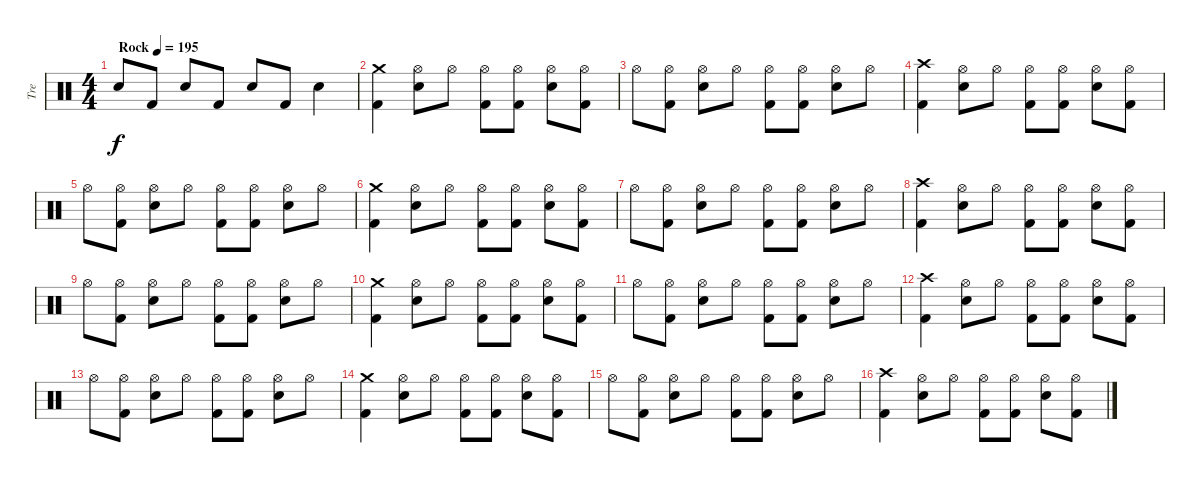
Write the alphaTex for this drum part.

\track ("Tre" "Tre") {instrument percussion}
\staff {score}
\articulation defaults
\ts (4 4)
\tempo (195 "Rock")
\clef neutral
\ks c "Electric Snare (hit)".8{dy f} "Kick (hit) 2".8 "Electric Snare (hit)".8 "Kick (hit) 2".8 "Electric Snare (hit)".8 "Kick (hit) 2".8 "Electric Snare (hit)".4
|
("Crash medium (hit)" "Kick (hit) 2").4 ("Hi-Hat (open)" "Electric Snare (hit)").8 "Hi-Hat (open)".8 ("Hi-Hat (open)" "Kick (hit) 2").8 ("Hi-Hat (open)" "Kick (hit) 2").8 ("Hi-Hat (open)" "Electric Snare (hit)").8 ("Hi-Hat (open)" "Kick (hit) 2").8 |
"Hi-Hat (open)".8 ("Hi-Hat (open)" "Kick (hit) 2").8 ("Hi-Hat (open)" "Electric Snare (hit)").8 "Hi-Hat (open)".8 ("Hi-Hat (open)" "Kick (hit) 2").8 ("Hi-Hat (open)" "Kick (hit) 2").8 ("Hi-Hat (open)" "Electric Snare (hit)").8 "Hi-Hat (open)".8 |
("Crash high (hit)" "Kick (hit) 2").4 ("Hi-Hat (open)" "Electric Snare (hit)").8 "Hi-Hat (open)".8 ("Hi-Hat (open)" "Kick (hit) 2").8 ("Hi-Hat (open)" "Kick (hit) 2").8 ("Hi-Hat (open)" "Electric Snare (hit)").8 ("Hi-Hat (open)" "Kick (hit) 2").8 |
"Hi-Hat (open)".8 ("Hi-Hat (open)" "Kick (hit) 2").8 ("Hi-Hat (open)" "Electric Snare (hit)").8 "Hi-Hat (open)".8 ("Hi-Hat (open)" "Kick (hit) 2").8 ("Hi-Hat (open)" "Kick (hit) 2").8 ("Hi-Hat (open)" "Electric Snare (hit)").8 "Hi-Hat (open)".8 |
("Crash medium (hit)" "Kick (hit) 2").4 ("Hi-Hat (open)" "Electric Snare (hit)").8 "Hi-Hat (open)".8 ("Hi-Hat (open)" "Kick (hit) 2").8 ("Hi-Hat (open)" "Kick (hit) 2").8 ("Hi-Hat (open)" "Electric Snare (hit)").8 ("Hi-Hat (open)" "Kick (hit) 2").8 |
"Hi-Hat (open)".8 ("Hi-Hat (open)" "Kick (hit) 2").8 ("Hi-Hat (open)" "Electric Snare (hit)").8 "Hi-Hat (open)".8 ("Hi-Hat (open)" "Kick (hit) 2").8 ("Hi-Hat (open)" "Kick (hit) 2").8 ("Hi-Hat (open)" "Electric Snare (hit)").8 "Hi-Hat (open)".8 |
("Crash high (hit)" "Kick (hit) 2").4 ("Hi-Hat (open)" "Electric Snare (hit)").8 "Hi-Hat (open)".8 ("Hi-Hat (open)" "Kick (hit) 2").8 ("Hi-Hat (open)" "Kick (hit) 2").8 ("Hi-Hat (open)" "Electric Snare (hit)").8 ("Hi-Hat (open)" "Kick (hit) 2").8 |
"Hi-Hat (open)".8 ("Hi-Hat (open)" "Kick (hit) 2").8 ("Hi-Hat (open)" "Electric Snare (hit)").8 "Hi-Hat (open)".8 ("Hi-Hat (open)" "Kick (hit) 2").8 ("Hi-Hat (open)" "Kick (hit) 2").8 ("Hi-Hat (open)" "Electric Snare (hit)").8 "Hi-Hat (open)".8 |
("Crash medium (hit)" "Kick (hit) 2").4 ("Hi-Hat (open)" "Electric Snare (hit)").8 "Hi-Hat (open)".8 ("Hi-Hat (open)" "Kick (hit) 2").8 ("Hi-Hat (open)" "Kick (hit) 2").8 ("Hi-Hat (open)" "Electric Snare (hit)").8 ("Hi-Hat (open)" "Kick (hit) 2").8 |
"Hi-Hat (open)".8 ("Hi-Hat (open)" "Kick (hit) 2").8 ("Hi-Hat (open)" "Electric Snare (hit)").8 "Hi-Hat (open)".8 ("Hi-Hat (open)" "Kick (hit) 2").8 ("Hi-Hat (open)" "Kick (hit) 2").8 ("Hi-Hat (open)" "Electric Snare (hit)").8 "Hi-Hat (open)".8 |
("Crash high (hit)" "Kick (hit) 2").4 ("Hi-Hat (open)" "Electric Snare (hit)").8 "Hi-Hat (open)".8 ("Hi-Hat (open)" "Kick (hit) 2").8 ("Hi-Hat (open)" "Kick (hit) 2").8 ("Hi-Hat (open)" "Electric Snare (hit)").8 ("Hi-Hat (open)" "Kick (hit) 2").8 |
"Hi-Hat (open)".8 ("Hi-Hat (open)" "Kick (hit) 2").8 ("Hi-Hat (open)" "Electric Snare (hit)").8 "Hi-Hat (open)".8 ("Hi-Hat (open)" "Kick (hit) 2").8 ("Hi-Hat (open)" "Kick (hit) 2").8 ("Hi-Hat (open)" "Electric Snare (hit)").8 "Hi-Hat (open)".8 |
("Crash medium (hit)" "Kick (hit) 2").4 ("Hi-Hat (open)" "Electric Snare (hit)").8 "Hi-Hat (open)".8 ("Hi-Hat (open)" "Kick (hit) 2").8 ("Hi-Hat (open)" "Kick (hit) 2").8 ("Hi-Hat (open)" "Electric Snare (hit)").8 ("Hi-Hat (open)" "Kick (hit) 2").8 |
"Hi-Hat (open)".8 ("Hi-Hat (open)" "Kick (hit) 2").8 ("Hi-Hat (open)" "Electric Snare (hit)").8 "Hi-Hat (open)".8 ("Hi-Hat (open)" "Kick (hit) 2").8 ("Hi-Hat (open)" "Kick (hit) 2").8 ("Hi-Hat (open)" "Electric Snare (hit)").8 "Hi-Hat (open)".8 |
("Crash high (hit)" "Kick (hit) 2").4 ("Hi-Hat (open)" "Electric Snare (hit)").8 "Hi-Hat (open)".8 ("Hi-Hat (open)" "Kick (hit) 2").8 ("Hi-Hat (open)" "Kick (hit) 2").8 ("Hi-Hat (open)" "Electric Snare (hit)").8 ("Hi-Hat (open)" "Kick (hit) 2").8
